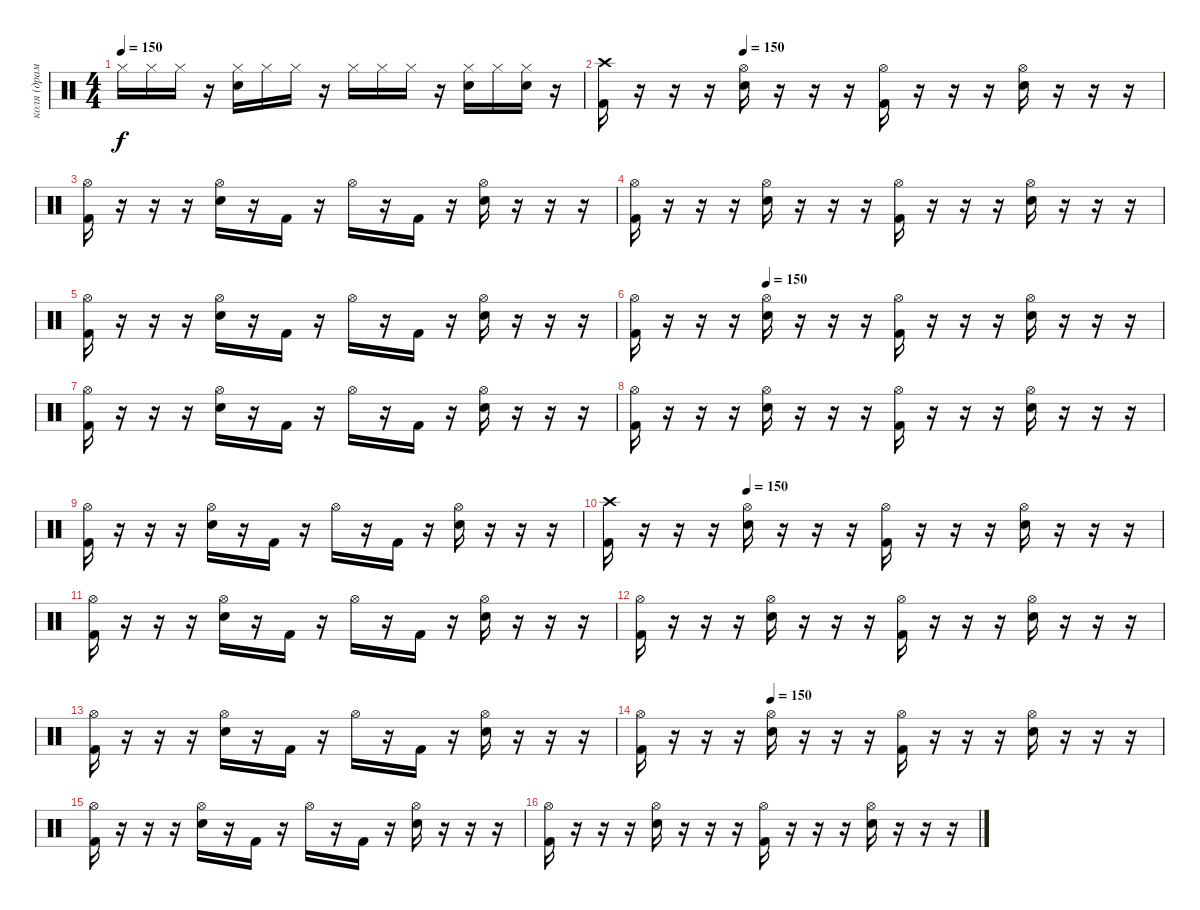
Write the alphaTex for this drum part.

\track ("коля (драммы)" "коля (драм") {instrument percussion}
\staff {score}
\articulation defaults
\ts (4 4)
\tempo 150
\clef neutral
\ks c "Hi-Hat (closed)".16{dy f} "Hi-Hat (closed)".16 "Hi-Hat (closed)".16
r.16 ("Snare (hit) 2" "Hi-Hat (closed)").16 "Hi-Hat (closed)".16 "Hi-Hat (closed)".16 r.16 "Hi-Hat (closed)".16 "Hi-Hat (closed)".16 "Hi-Hat (closed)".16 r.16 ("Snare (hit) 2" "Hi-Hat (closed)").16 "Hi-Hat (closed)".16 ("Snare (hit) 2" "Hi-Hat (closed)").16 r.16 |
\tempo (150 0.25)
("Kick (hit) 2" "Crash high (hit)").16 r.16 r.16 r.16 ("Snare (hit) 2" "Hi-Hat (open)").16 r.16 r.16 r.16 ("Kick (hit) 2" "Hi-Hat (open)").16 r.16 r.16 r.16 ("Snare (hit) 2" "Hi-Hat (open)").16 r.16 r.16 r.16 |
("Kick (hit) 2" "Hi-Hat (open)").16 r.16 r.16 r.16 ("Snare (hit) 2" "Hi-Hat (open)").16 r.16 "Kick (hit) 2".16 r.16 "Hi-Hat (open)".16 r.16 "Kick (hit) 2".16 r.16 ("Snare (hit) 2" "Hi-Hat (open)").16 r.16 r.16 r.16 |
("Kick (hit) 2" "Hi-Hat (open)").16 r.16 r.16 r.16 ("Snare (hit) 2" "Hi-Hat (open)").16 r.16 r.16 r.16 ("Kick (hit) 2" "Hi-Hat (open)").16 r.16 r.16 r.16 ("Snare (hit) 2" "Hi-Hat (open)").16 r.16 r.16 r.16 |
("Kick (hit) 2" "Hi-Hat (open)").16 r.16 r.16 r.16 ("Snare (hit) 2" "Hi-Hat (open)").16 r.16 "Kick (hit) 2".16 r.16 "Hi-Hat (open)".16 r.16 "Kick (hit) 2".16 r.16 ("Snare (hit) 2" "Hi-Hat (open)").16 r.16 r.16 r.16 |
\tempo (150 0.25)
("Kick (hit) 2" "Hi-Hat (open)").16 r.16 r.16 r.16 ("Snare (hit) 2" "Hi-Hat (open)").16 r.16 r.16 r.16 ("Kick (hit) 2" "Hi-Hat (open)").16 r.16 r.16 r.16 ("Snare (hit) 2" "Hi-Hat (open)").16 r.16 r.16 r.16 |
("Kick (hit) 2" "Hi-Hat (open)").16 r.16 r.16 r.16 ("Snare (hit) 2" "Hi-Hat (open)").16 r.16 "Kick (hit) 2".16 r.16 "Hi-Hat (open)".16 r.16 "Kick (hit) 2".16 r.16 ("Snare (hit) 2" "Hi-Hat (open)").16 r.16 r.16 r.16 |
("Kick (hit) 2" "Hi-Hat (open)").16 r.16 r.16 r.16 ("Snare (hit) 2" "Hi-Hat (open)").16 r.16 r.16 r.16 ("Kick (hit) 2" "Hi-Hat (open)").16 r.16 r.16 r.16 ("Snare (hit) 2" "Hi-Hat (open)").16 r.16 r.16 r.16 |
("Kick (hit) 2" "Hi-Hat (open)").16 r.16 r.16 r.16 ("Snare (hit) 2" "Hi-Hat (open)").16 r.16 "Kick (hit) 2".16 r.16 "Hi-Hat (open)".16 r.16 "Kick (hit) 2".16 r.16 ("Snare (hit) 2" "Hi-Hat (open)").16 r.16 r.16 r.16 |
\tempo (150 0.25)
("Kick (hit) 2" "Crash high (hit)").16 r.16 r.16 r.16 ("Snare (hit) 2" "Hi-Hat (open)").16 r.16 r.16 r.16 ("Kick (hit) 2" "Hi-Hat (open)").16 r.16 r.16 r.16 ("Snare (hit) 2" "Hi-Hat (open)").16 r.16 r.16 r.16 |
("Kick (hit) 2" "Hi-Hat (open)").16 r.16 r.16 r.16 ("Snare (hit) 2" "Hi-Hat (open)").16 r.16 "Kick (hit) 2".16 r.16 "Hi-Hat (open)".16 r.16 "Kick (hit) 2".16 r.16 ("Snare (hit) 2" "Hi-Hat (open)").16 r.16 r.16 r.16 |
("Kick (hit) 2" "Hi-Hat (open)").16 r.16 r.16 r.16 ("Snare (hit) 2" "Hi-Hat (open)").16 r.16 r.16 r.16 ("Kick (hit) 2" "Hi-Hat (open)").16 r.16 r.16 r.16 ("Snare (hit) 2" "Hi-Hat (open)").16 r.16 r.16 r.16 |
("Kick (hit) 2" "Hi-Hat (open)").16 r.16 r.16 r.16 ("Snare (hit) 2" "Hi-Hat (open)").16 r.16 "Kick (hit) 2".16 r.16 "Hi-Hat (open)".16 r.16 "Kick (hit) 2".16 r.16 ("Snare (hit) 2" "Hi-Hat (open)").16 r.16 r.16 r.16 |
\tempo (150 0.25)
("Kick (hit) 2" "Hi-Hat (open)").16 r.16 r.16 r.16 ("Snare (hit) 2" "Hi-Hat (open)").16 r.16 r.16 r.16 ("Kick (hit) 2" "Hi-Hat (open)").16 r.16 r.16 r.16 ("Snare (hit) 2" "Hi-Hat (open)").16 r.16 r.16 r.16 |
("Kick (hit) 2" "Hi-Hat (open)").16 r.16 r.16 r.16 ("Snare (hit) 2" "Hi-Hat (open)").16 r.16 "Kick (hit) 2".16 r.16 "Hi-Hat (open)".16 r.16 "Kick (hit) 2".16 r.16 ("Snare (hit) 2" "Hi-Hat (open)").16 r.16 r.16 r.16 |
("Kick (hit) 2" "Hi-Hat (open)").16 r.16 r.16 r.16 ("Snare (hit) 2" "Hi-Hat (open)").16 r.16 r.16 r.16 ("Kick (hit) 2" "Hi-Hat (open)").16 r.16 r.16 r.16 ("Snare (hit) 2" "Hi-Hat (open)").16 r.16 r.16 r.16
